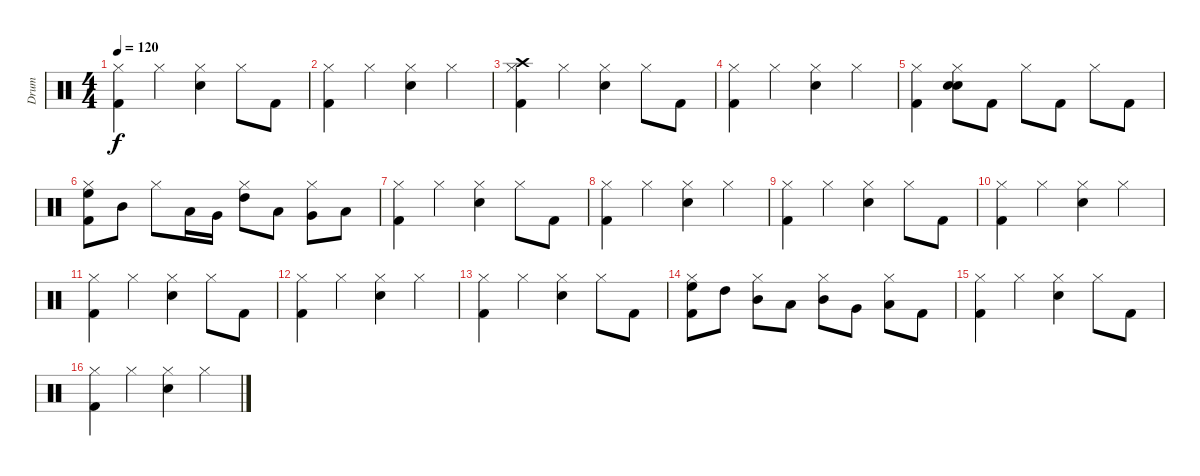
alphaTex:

\track ("Drum" "Drum") {instrument percussion}
\staff {score}
\articulation defaults
\ts (4 4)
\tempo 120
\clef neutral
\ks c
("Hi-Hat (closed)" "Kick (hit) 2").4{dy f} "Hi-Hat (closed)".4 ("Hi-Hat (closed)" "Electric Snare (hit)").4 "Hi-Hat (closed)".8 "Kick (hit) 2".8 |
("Hi-Hat (closed)" "Kick (hit) 2").4 "Hi-Hat (closed)".4 ("Hi-Hat (closed)" "Electric Snare (hit)").4 "Hi-Hat (closed)".4 |
("Hi-Hat (closed)" "Crash high (hit)" "Kick (hit) 2").4 "Hi-Hat (closed)".4 ("Hi-Hat (closed)" "Electric Snare (hit)").4 "Hi-Hat (closed)".8 "Kick (hit) 2".8 |
("Hi-Hat (closed)" "Kick (hit) 2").4 "Hi-Hat (closed)".4 ("Hi-Hat (closed)" "Electric Snare (hit)").4 "Hi-Hat (closed)".4 |
("Hi-Hat (closed)" "Kick (hit) 2").4 ("Hi-Hat (closed)" "Electric Snare (hit)" "Electric Snare (hit)").8 "Kick (hit) 2".8 "Hi-Hat (closed)".8 "Kick (hit) 2".8 "Hi-Hat (closed)".8 "Kick (hit) 2".8 |
("Hi-Hat (closed)" "High Floor Tom (hit)" "Kick (hit) 2").8 "Mid Tom (hit)".8 "Hi-Hat (closed)".8 "Low Tom (hit)".16 "Very Low Tom (hit)".16 ("Hi-Hat (closed)" "High Tom (hit)").8 "Low Tom (hit)".8 ("Hi-Hat (closed)" "Very Low Tom (hit)").8 "Low Floor Tom (hit)".8 |
("Hi-Hat (closed)" "Kick (hit) 2").4 "Hi-Hat (closed)".4 ("Hi-Hat (closed)" "Electric Snare (hit)").4 "Hi-Hat (closed)".8 "Kick (hit) 2".8 |
("Hi-Hat (closed)" "Kick (hit) 2").4 "Hi-Hat (closed)".4 ("Hi-Hat (closed)" "Electric Snare (hit)").4 "Hi-Hat (closed)".4 |
("Hi-Hat (closed)" "Kick (hit) 2").4 "Hi-Hat (closed)".4 ("Hi-Hat (closed)" "Electric Snare (hit)").4 "Hi-Hat (closed)".8 "Kick (hit) 2".8 |
("Hi-Hat (closed)" "Kick (hit) 2").4 "Hi-Hat (closed)".4 ("Hi-Hat (closed)" "Electric Snare (hit)").4 "Hi-Hat (closed)".4 |
("Hi-Hat (closed)" "Kick (hit) 2").4 "Hi-Hat (closed)".4 ("Hi-Hat (closed)" "Electric Snare (hit)").4 "Hi-Hat (closed)".8 "Kick (hit) 2".8 |
("Hi-Hat (closed)" "Kick (hit) 2").4 "Hi-Hat (closed)".4 ("Hi-Hat (closed)" "Electric Snare (hit)").4 "Hi-Hat (closed)".4 |
("Hi-Hat (closed)" "Kick (hit) 2").4 "Hi-Hat (closed)".4 ("Hi-Hat (closed)" "Electric Snare (hit)").4 "Hi-Hat (closed)".8 "Kick (hit) 2".8 |
("Hi-Hat (closed)" "High Floor Tom (hit)" "Kick (hit) 2").8 "High Tom (hit)".8 ("Hi-Hat (closed)" "Mid Tom (hit)").8 "Low Tom (hit)".8 ("Hi-Hat (closed)" "Mid Tom (hit)").8 "Very Low Tom (hit)".8 ("Hi-Hat (closed)" "Low Floor Tom (hit)").8 "Kick (hit) 2".8 |
("Hi-Hat (closed)" "Kick (hit) 2").4 "Hi-Hat (closed)".4 ("Hi-Hat (closed)" "Electric Snare (hit)").4 "Hi-Hat (closed)".8 "Kick (hit) 2".8 |
("Hi-Hat (closed)" "Kick (hit) 2").4 "Hi-Hat (closed)".4 ("Hi-Hat (closed)" "Electric Snare (hit)").4 "Hi-Hat (closed)".4
